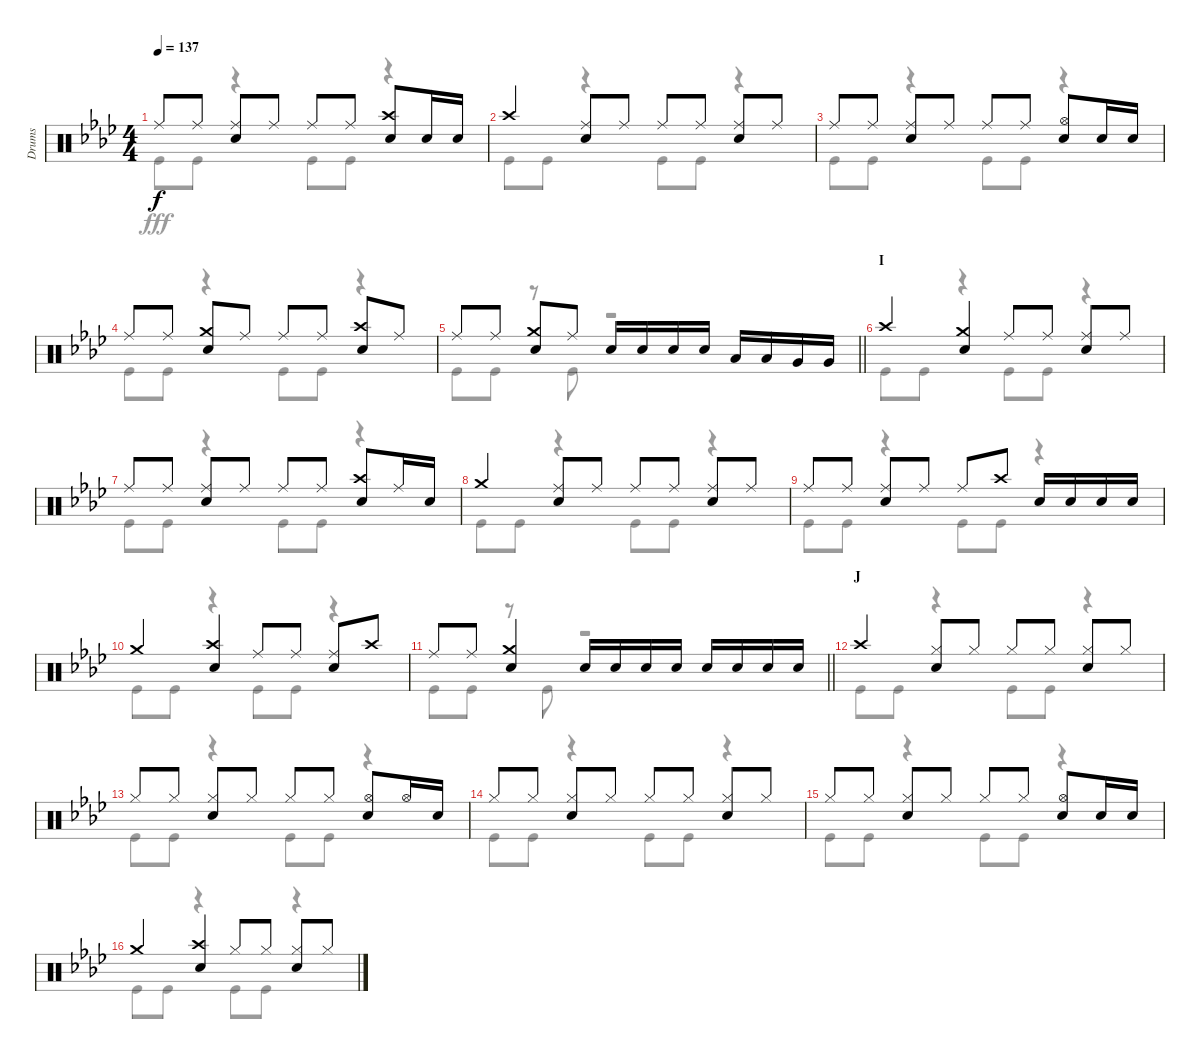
\track ("Drums" "Drums") {instrument percussion}
\staff {score}
\articulation defaults
\voice
\ts (4 4)
\tempo 137
\clef neutral
\ks ab "Ride (middle)".8{dy f} "Ride (middle)".8
("Ride (middle)" "Snare (hit) 2").8 "Ride (middle)".8 "Ride (middle)".8 "Ride (middle)".8 ("Crash high (hit)" "Snare (hit) 2").8 "Snare (hit) 2".16 "Snare (hit) 2".16 |
"Crash high (hit)".4 ("Ride (middle)" "Snare (hit) 2").8 "Ride (middle)".8 "Ride (middle)".8 "Ride (middle)".8 ("Ride (middle)" "Snare (hit) 2").8 "Ride (middle)".8 |
"Ride (middle)".8 "Ride (middle)".8 ("Ride (middle)" "Snare (hit) 2").8 "Ride (middle)".8 "Ride (middle)".8 "Ride (middle)".8 ("Hi-Hat (open)" "Snare (hit) 2").8 "Snare (hit) 2".16 "Snare (hit) 2".16 |
"Ride (middle)".8 "Ride (middle)".8 ("Crash medium (hit)" "Snare (hit) 2").8 "Ride (middle)".8 "Ride (middle)".8 "Ride (middle)".8 ("Crash high (hit)" "Snare (hit) 2").8 "Ride (middle)".8 |
\barLineRight lightlight "Ride (middle)".8 "Ride (middle)".8
("Crash medium (hit)" "Snare (hit) 2").8 "Ride (middle)".8 "Snare (hit) 2".16 "Snare (hit) 2".16 "Snare (hit) 2".16 "Snare (hit) 2".16 "Low Tom (hit)".16 "Low Tom (hit)".16 "Very Low Tom (hit)".16 "Very Low Tom (hit)".16 |
\section ("" "I")
"Crash high (hit)".4 ("Crash medium (hit)" "Snare (hit) 2").4 "Ride (middle)".8 "Ride (middle)".8 ("Ride (middle)" "Snare (hit) 2").8 "Ride (middle)".8 |
"Ride (middle)".8 "Ride (middle)".8 ("Ride (middle)" "Snare (hit) 2").8 "Ride (middle)".8 "Ride (middle)".8 "Ride (middle)".8 ("Crash high (hit)" "Snare (hit) 2").8 "Ride (middle)".16 "Snare (hit) 2".16 |
"Crash medium (hit)".4 ("Ride (middle)" "Snare (hit) 2").8 "Ride (middle)".8 "Ride (middle)".8 "Ride (middle)".8 ("Ride (middle)" "Snare (hit) 2").8 "Ride (middle)".8 |
"Ride (middle)".8 "Ride (middle)".8 ("Ride (middle)" "Snare (hit) 2").8 "Ride (middle)".8 "Ride (middle)".8 "Crash high (hit)".8 "Snare (hit) 2".16 "Snare (hit) 2".16 "Snare (hit) 2".16 "Snare (hit) 2".16 |
"Crash medium (hit)".4 ("Crash high (hit)" "Snare (hit) 2").4 "Ride (middle)".8 "Ride (middle)".8 ("Ride (middle)" "Snare (hit) 2").8 "Crash high (hit)".8 |
\barLineRight lightlight "Ride (middle)".8 "Ride (middle)".8
("Crash medium (hit)" "Snare (hit) 2").4 "Snare (hit) 2".16 "Snare (hit) 2".16 "Snare (hit) 2".16 "Snare (hit) 2".16 "Snare (hit) 2".16 "Snare (hit) 2".16 "Snare (hit) 2".16 "Snare (hit) 2".16 |
\section ("" "J")
"Crash high (hit)".4 ("Hi-Hat (closed)" "Snare (hit) 2").8 "Hi-Hat (closed)".8 "Hi-Hat (closed)".8 "Hi-Hat (closed)".8 ("Hi-Hat (closed)" "Snare (hit) 2").8 "Hi-Hat (closed)".8 |
"Hi-Hat (closed)".8 "Hi-Hat (closed)".8 ("Hi-Hat (closed)" "Snare (hit) 2").8 "Hi-Hat (closed)".8 "Hi-Hat (closed)".8 "Hi-Hat (closed)".8 ("Hi-Hat (open)" "Snare (hit) 2").8 "Hi-Hat (open)".16 "Snare (hit) 2".16 |
"Hi-Hat (closed)".8 "Hi-Hat (closed)".8 ("Hi-Hat (closed)" "Snare (hit) 2").8 "Hi-Hat (closed)".8 "Hi-Hat (closed)".8 "Hi-Hat (closed)".8 ("Hi-Hat (closed)" "Snare (hit) 2").8 "Hi-Hat (closed)".8 |
"Hi-Hat (closed)".8 "Hi-Hat (closed)".8 ("Hi-Hat (closed)" "Snare (hit) 2").8 "Hi-Hat (closed)".8 "Hi-Hat (closed)".8 "Hi-Hat (closed)".8 ("Hi-Hat (open)" "Snare (hit) 2").8 "Snare (hit) 2".16 "Snare (hit) 2".16 |
"Crash medium (hit)".4 ("Crash high (hit)" "Snare (hit) 2").4 "Hi-Hat (closed)".8 "Hi-Hat (closed)".8 ("Hi-Hat (closed)" "Snare (hit) 2").8 "Hi-Hat (closed)".8
\voice
\clef neutral
\ottava regular
\simile none
\ks ab "Kick (hit)".8{dy fff} "Kick (hit)".8
r.4 "Kick (hit)".8 "Kick (hit)".8 r.4 |
"Kick (hit)".8 "Kick (hit)".8 r.4 "Kick (hit)".8 "Kick (hit)".8 r.4 |
"Kick (hit)".8 "Kick (hit)".8 r.4 "Kick (hit)".8 "Kick (hit)".8 r.4 |
"Kick (hit)".8 "Kick (hit)".8 r.4 "Kick (hit)".8 "Kick (hit)".8 r.4 |
\barLineRight lightlight "Kick (hit)".8 "Kick (hit)".8
r.8 "Kick (hit)".8 r.2 |
"Kick (hit)".8 "Kick (hit)".8 r.4 "Kick (hit)".8 "Kick (hit)".8 r.4 |
"Kick (hit)".8 "Kick (hit)".8 r.4 "Kick (hit)".8 "Kick (hit)".8 r.4 |
"Kick (hit)".8 "Kick (hit)".8 r.4 "Kick (hit)".8 "Kick (hit)".8 r.4 |
"Kick (hit)".8 "Kick (hit)".8 r.4 "Kick (hit)".8 "Kick (hit)".8 r.4 |
"Kick (hit)".8 "Kick (hit)".8 r.4 "Kick (hit)".8 "Kick (hit)".8 r.4 |
\barLineRight lightlight "Kick (hit)".8 "Kick (hit)".8
r.8 "Kick (hit)".8 r.2 |
"Kick (hit)".8 "Kick (hit)".8 r.4 "Kick (hit)".8 "Kick (hit)".8 r.4 |
"Kick (hit)".8 "Kick (hit)".8 r.4 "Kick (hit)".8 "Kick (hit)".8 r.4 |
"Kick (hit)".8 "Kick (hit)".8 r.4 "Kick (hit)".8 "Kick (hit)".8 r.4 |
"Kick (hit)".8 "Kick (hit)".8 r.4 "Kick (hit)".8 "Kick (hit)".8 r.4 |
"Kick (hit)".8 "Kick (hit)".8 r.4 "Kick (hit)".8 "Kick (hit)".8 r.4
